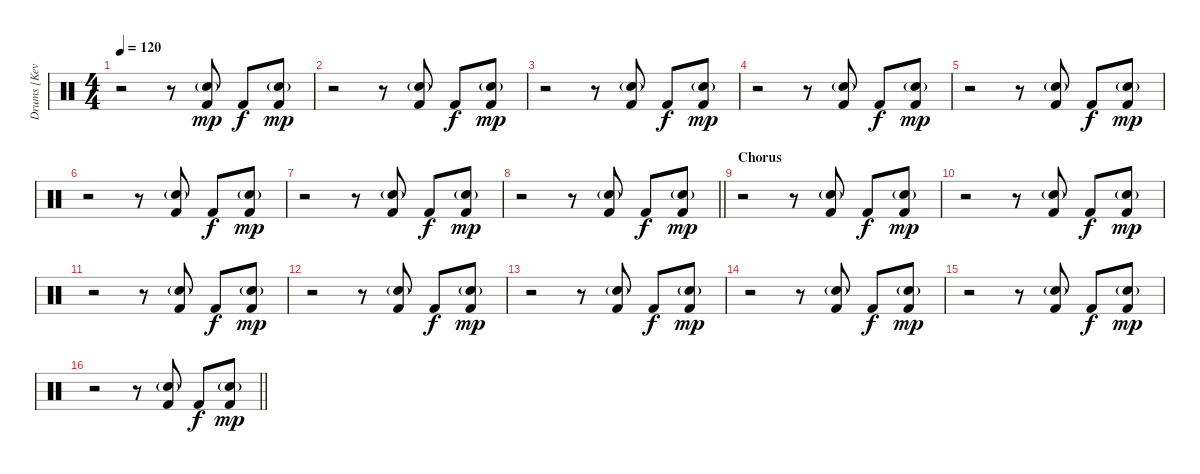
\track ("Drums [Kevin Haskins]" "Drums [Kev") {instrument percussion}
\staff {score}
\articulation defaults
\ts (4 4)
\tempo 120
\clef neutral
\ks c
r.2{dy mp} r.8 ("Snare (hit) 2"{g} "Kick (hit) 2").8 "Kick (hit) 2".8{dy f} ("Snare (hit) 2"{g} "Kick (hit) 2").8{dy mp} |
r.2 r.8 ("Snare (hit) 2"{g} "Kick (hit) 2").8 "Kick (hit) 2".8{dy f} ("Snare (hit) 2"{g} "Kick (hit) 2").8{dy mp} |
r.2 r.8 ("Snare (hit) 2"{g} "Kick (hit) 2").8 "Kick (hit) 2".8{dy f} ("Snare (hit) 2"{g} "Kick (hit) 2").8{dy mp} |
r.2 r.8 ("Snare (hit) 2"{g} "Kick (hit) 2").8 "Kick (hit) 2".8{dy f} ("Snare (hit) 2"{g} "Kick (hit) 2").8{dy mp} |
r.2 r.8 ("Snare (hit) 2"{g} "Kick (hit) 2").8 "Kick (hit) 2".8{dy f} ("Snare (hit) 2"{g} "Kick (hit) 2").8{dy mp} |
r.2 r.8 ("Snare (hit) 2"{g} "Kick (hit) 2").8 "Kick (hit) 2".8{dy f} ("Snare (hit) 2"{g} "Kick (hit) 2").8{dy mp} |
r.2 r.8 ("Snare (hit) 2"{g} "Kick (hit) 2").8 "Kick (hit) 2".8{dy f} ("Snare (hit) 2"{g} "Kick (hit) 2").8{dy mp} |
\barLineRight lightlight
r.2 r.8 ("Snare (hit) 2"{g} "Kick (hit) 2").8 "Kick (hit) 2".8{dy f} ("Snare (hit) 2"{g} "Kick (hit) 2").8{dy mp} |
\section ("" "Chorus")
r.2 r.8 ("Snare (hit) 2"{g} "Kick (hit) 2").8 "Kick (hit) 2".8{dy f} ("Snare (hit) 2"{g} "Kick (hit) 2").8{dy mp} |
r.2 r.8 ("Snare (hit) 2"{g} "Kick (hit) 2").8 "Kick (hit) 2".8{dy f} ("Snare (hit) 2"{g} "Kick (hit) 2").8{dy mp} |
r.2 r.8 ("Snare (hit) 2"{g} "Kick (hit) 2").8 "Kick (hit) 2".8{dy f} ("Snare (hit) 2"{g} "Kick (hit) 2").8{dy mp} |
r.2 r.8 ("Snare (hit) 2"{g} "Kick (hit) 2").8 "Kick (hit) 2".8{dy f} ("Snare (hit) 2"{g} "Kick (hit) 2").8{dy mp} |
r.2 r.8 ("Snare (hit) 2"{g} "Kick (hit) 2").8 "Kick (hit) 2".8{dy f} ("Snare (hit) 2"{g} "Kick (hit) 2").8{dy mp} |
r.2 r.8 ("Snare (hit) 2"{g} "Kick (hit) 2").8 "Kick (hit) 2".8{dy f} ("Snare (hit) 2"{g} "Kick (hit) 2").8{dy mp} |
r.2 r.8 ("Snare (hit) 2"{g} "Kick (hit) 2").8 "Kick (hit) 2".8{dy f} ("Snare (hit) 2"{g} "Kick (hit) 2").8{dy mp} |
\barLineRight lightlight
r.2 r.8 ("Snare (hit) 2"{g} "Kick (hit) 2").8 "Kick (hit) 2".8{dy f} ("Snare (hit) 2"{g} "Kick (hit) 2").8{dy mp}
